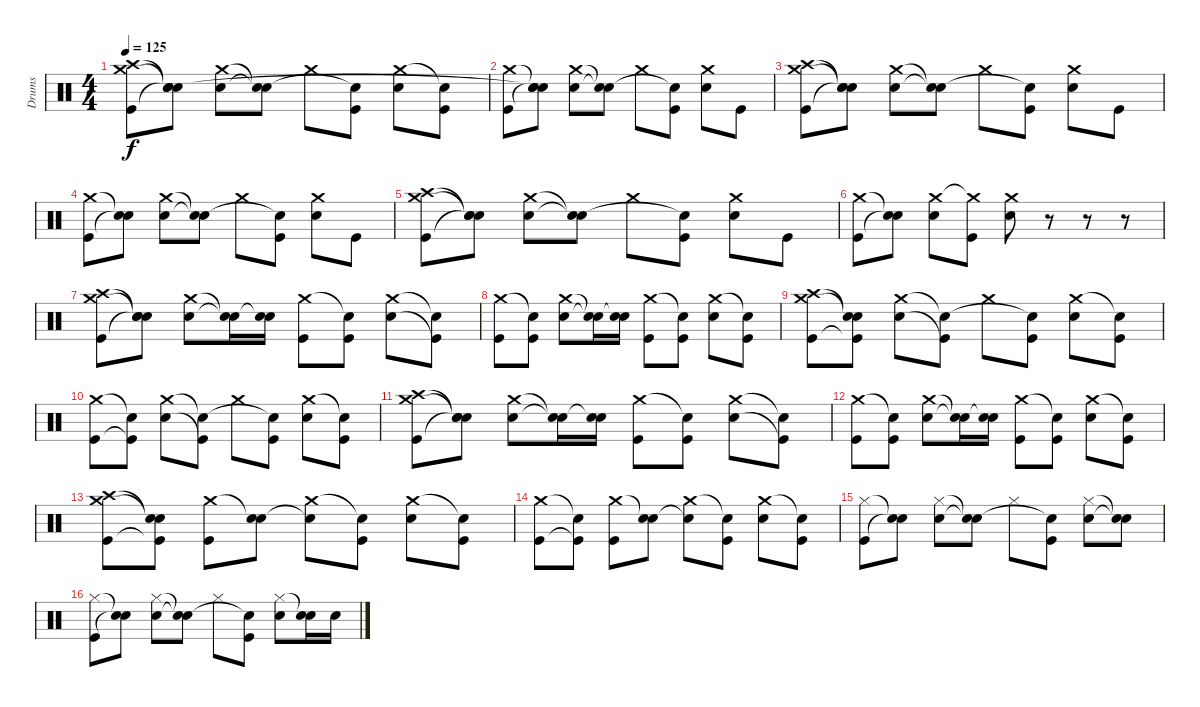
\track ("Drums" "Drums") {instrument percussion}
\staff {score}
\articulation defaults
\ts (4 4)
\tempo 125
\clef neutral
\ks c
("Kick (hit)" "Crash medium (hit)" "Crash high (hit)").8{dy f} ("Snare (hit)"{t} "Snare (hit)"{t} "Snare (hit)"{t}).8 ("Snare (hit) 2" "Crash medium (hit)").8 ("Snare (hit)"{t} "Snare (hit)"{t}).8 "Crash medium (hit)".8 ("Kick (hit)" "Snare (hit)"{t}).8 ("Snare (hit) 2" "Crash medium (hit)").8 ("Kick (hit)" "Snare (hit)"{t}).8 |
("Kick (hit)" "Crash medium (hit)").8 ("Snare (hit)"{t} "Snare (hit)"{t} "Snare (hit)"{t}).8 ("Snare (hit) 2" "Crash medium (hit)").8 ("Snare (hit)"{t} "Snare (hit)"{t}).8 "Crash medium (hit)".8 ("Kick (hit)" "Snare (hit)"{t}).8 ("Snare (hit) 2" "Crash medium (hit)").8 "Kick (hit)".8 |
("Kick (hit)" "Crash medium (hit)" "Crash high (hit)").8 ("Snare (hit)"{t} "Snare (hit)"{t} "Snare (hit)"{t}).8 ("Snare (hit) 2" "Crash medium (hit)").8 ("Snare (hit)"{t} "Snare (hit)"{t}).8 "Crash medium (hit)".8 ("Kick (hit)" "Snare (hit)"{t}).8 ("Snare (hit) 2" "Crash medium (hit)").8 "Kick (hit)".8 |
("Kick (hit)" "Crash medium (hit)").8 ("Snare (hit)"{t} "Snare (hit)"{t}).8 ("Snare (hit) 2" "Crash medium (hit)").8 ("Snare (hit)"{t} "Snare (hit)"{t}).8 "Crash medium (hit)".8 ("Kick (hit)" "Snare (hit)"{t}).8 ("Snare (hit) 2" "Crash medium (hit)").8 "Kick (hit)".8 |
("Kick (hit)" "Crash medium (hit)" "Crash high (hit)").8 ("Snare (hit)"{t} "Snare (hit)"{t} "Snare (hit)"{t}).8 ("Snare (hit) 2" "Crash medium (hit)").8 ("Snare (hit)"{t} "Snare (hit)"{t}).8 "Crash medium (hit)".8 ("Kick (hit)" "Snare (hit)"{t}).8 ("Snare (hit) 2" "Crash medium (hit)").8 "Kick (hit)".8 |
("Kick (hit)" "Crash medium (hit)").8 ("Snare (hit) 2"{t} "Snare (hit)"{t}).8 ("Snare (hit) 2" "Crash medium (hit)").8 ("Kick (hit)" "Crash medium (hit)"{t}).8 ("Snare (hit) 2" "Crash medium (hit)").8 r.8 r.8 r.8 |
("Kick (hit)" "Crash medium (hit)" "Crash high (hit)").8 ("Snare (hit)"{t} "Snare (hit)"{t} "Snare (hit)"{t}).8 ("Snare (hit) 2" "Crash medium (hit)").8 ("Snare (hit)"{t} "Snare (hit)"{t}).16 ("Snare (hit) 2" "Snare (hit)"{t}).16 ("Kick (hit)" "Crash medium (hit)").8 ("Kick (hit)" "Snare (hit)"{t}).8 ("Snare (hit) 2" "Crash medium (hit)").8 ("Kick (hit)"{t} "Snare (hit)"{t}).8 |
("Kick (hit)" "Crash medium (hit)").8 ("Kick (hit)" "Snare (hit)"{t}).8 ("Snare (hit) 2" "Crash medium (hit)").8 ("Snare (hit)"{t} "Snare (hit)"{t}).16 ("Snare (hit) 2" "Snare (hit)"{t}).16 ("Kick (hit)" "Crash medium (hit)").8 ("Kick (hit)" "Snare (hit)"{t}).8 ("Snare (hit) 2" "Crash medium (hit)").8 ("Kick (hit)" "Snare (hit)"{t}).8 |
("Kick (hit)" "Crash medium (hit)" "Crash high (hit)").8 ("Kick (hit)"{t} "Snare (hit)"{t} "Snare (hit)"{t}).8 ("Snare (hit) 2" "Crash medium (hit)").8 ("Kick (hit)"{t} "Snare (hit)"{t}).8 "Crash medium (hit)".8 ("Kick (hit)" "Snare (hit)"{t}).8 ("Snare (hit) 2" "Crash medium (hit)").8 ("Kick (hit)" "Snare (hit)"{t}).8 |
("Kick (hit)" "Crash medium (hit)").8 ("Kick (hit)"{t} "Snare (hit)"{t}).8 ("Snare (hit) 2" "Crash medium (hit)").8 ("Kick (hit)"{t} "Snare (hit)"{t}).8 "Crash medium (hit)".8 ("Kick (hit)" "Snare (hit)"{t}).8 ("Snare (hit) 2" "Crash medium (hit)").8 ("Kick (hit)" "Snare (hit)"{t}).8 |
("Kick (hit)" "Crash medium (hit)" "Crash high (hit)").8 ("Snare (hit)"{t} "Snare (hit)"{t} "Snare (hit)"{t}).8 ("Snare (hit) 2" "Crash medium (hit)").8 ("Snare (hit)"{t} "Snare (hit)"{t}).16 ("Snare (hit) 2" "Snare (hit)"{t}).16 ("Kick (hit)" "Crash medium (hit)").8 ("Kick (hit)" "Snare (hit)"{t}).8 ("Snare (hit) 2" "Crash medium (hit)").8 ("Kick (hit)"{t} "Snare (hit)"{t}).8 |
("Kick (hit)" "Crash medium (hit)").8 ("Kick (hit)" "Snare (hit)"{t}).8 ("Snare (hit) 2" "Crash medium (hit)").8 ("Snare (hit)"{t} "Snare (hit)"{t}).16 ("Snare (hit) 2" "Snare (hit)"{t}).16 ("Kick (hit)" "Crash medium (hit)").8 ("Kick (hit)" "Snare (hit)"{t}).8 ("Snare (hit) 2" "Crash medium (hit)").8 ("Kick (hit)" "Snare (hit)"{t}).8 |
("Kick (hit)" "Crash medium (hit)" "Crash high (hit)").8 ("Kick (hit)"{t} "Snare (hit)"{t} "Snare (hit)"{t}).8 ("Kick (hit)" "Crash medium (hit)").8 ("Snare (hit) 2" "Snare (hit)"{t}).8 ("Snare (hit)"{t} "Crash medium (hit)").8 ("Kick (hit)" "Snare (hit)"{t}).8 ("Snare (hit) 2" "Crash medium (hit)").8 ("Kick (hit)" "Snare (hit)"{t}).8 |
("Kick (hit)" "Crash medium (hit)").8 ("Kick (hit)"{t} "Snare (hit)"{t}).8 ("Kick (hit)" "Crash medium (hit)").8 ("Snare (hit) 2" "Snare (hit)"{t}).8 ("Snare (hit)"{t} "Crash medium (hit)").8 ("Kick (hit)" "Snare (hit)"{t}).8 ("Snare (hit) 2" "Crash medium (hit)").8 ("Kick (hit)" "Snare (hit)"{t}).8 |
("Kick (hit)" "Hi-Hat (closed)").8 ("Snare (hit)"{t} "Snare (hit)"{t}).8 ("Snare (hit) 2" "Hi-Hat (closed)").8 ("Snare (hit)"{t} "Snare (hit)"{t}).8 "Hi-Hat (closed)".8 ("Kick (hit)" "Snare (hit)"{t}).8 ("Snare (hit) 2" "Hi-Hat (closed)").8 ("Snare (hit)"{t} "Snare (hit)"{t}).8 |
("Kick (hit)" "Hi-Hat (closed)").8 ("Snare (hit)"{t} "Snare (hit)"{t}).8 ("Snare (hit) 2" "Hi-Hat (closed)").8 ("Snare (hit)"{t} "Snare (hit)"{t}).8 "Hi-Hat (closed)".8 ("Kick (hit)" "Snare (hit)"{t}).8 ("Snare (hit) 2" "Hi-Hat (closed)").8 ("Snare (hit) 2" "Snare (hit)"{t}).16 "Snare (hit) 2".16
